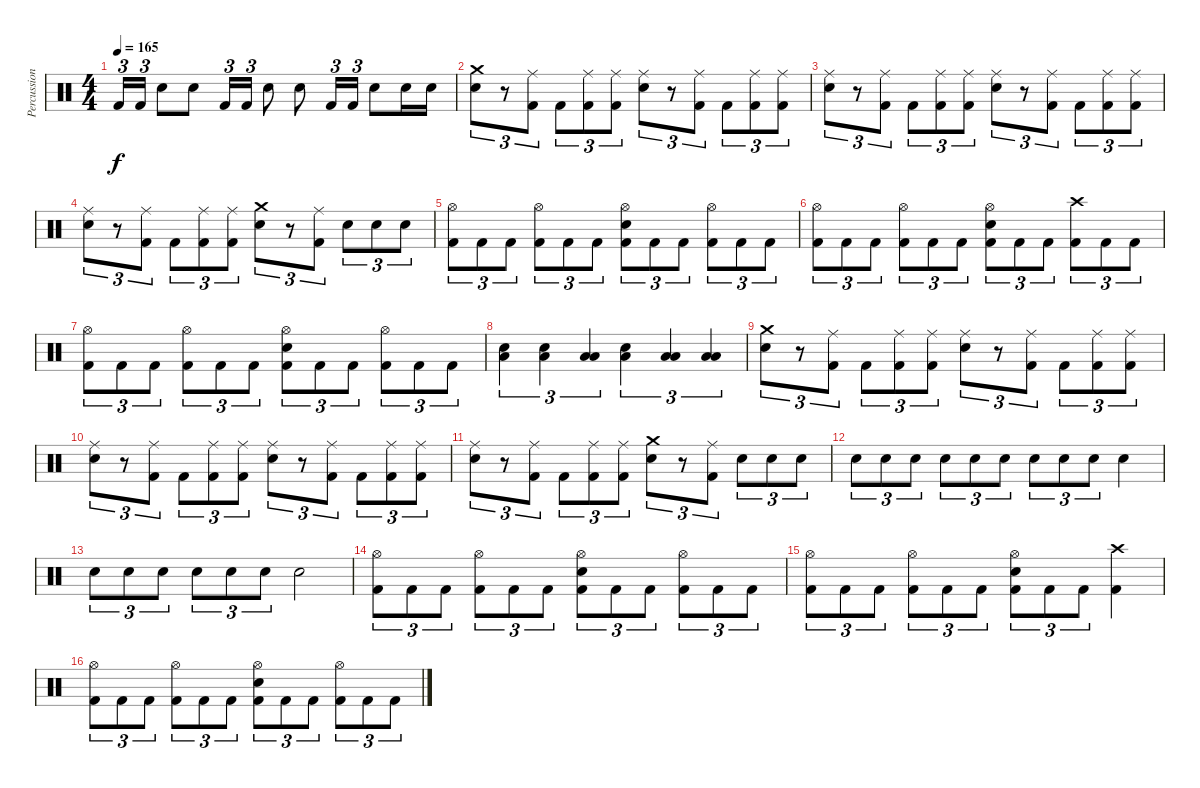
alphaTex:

\track ("Percussion" "Percussion") {instrument percussion}
\staff {score}
\articulation defaults
\ts (4 4)
\tempo 165
\clef neutral
\ks c "Kick (hit) 2".16{tu (3 2) dy f} "Kick (hit) 2".16{tu (3 2)} "Snare (hit) 2".8 "Snare (hit) 2".8 "Kick (hit) 2".16{tu (3 2)} "Kick (hit) 2".16{tu (3 2)} "Snare (hit) 2".8 "Snare (hit) 2".8 "Kick (hit) 2".16{tu (3 2)} "Kick (hit) 2".16{tu (3 2)} "Snare (hit) 2".8 "Snare (hit) 2".16 "Snare (hit) 2".16
|
("Snare (hit) 2" "Crash medium (hit)").8{tu (3 2)} r.8{tu (3 2)} ("Kick (hit) 2" "Ride (middle)").8{tu (3 2)} "Kick (hit) 2".8{tu (3 2)} ("Kick (hit) 2" "Ride (middle)").8{tu (3 2)} ("Kick (hit) 2" "Ride (middle)").8{tu (3 2)} ("Snare (hit) 2" "Ride (middle)").8{tu (3 2)} r.8{tu (3 2)} ("Kick (hit) 2" "Ride (middle)").8{tu (3 2)} "Kick (hit) 2".8{tu (3 2)} ("Kick (hit) 2" "Ride (middle)").8{tu (3 2)} ("Kick (hit) 2" "Ride (middle)").8{tu (3 2)} |
("Snare (hit) 2" "Ride (middle)").8{tu (3 2)} r.8{tu (3 2)} ("Kick (hit) 2" "Ride (middle)").8{tu (3 2)} "Kick (hit) 2".8{tu (3 2)} ("Kick (hit) 2" "Ride (middle)").8{tu (3 2)} ("Kick (hit) 2" "Ride (middle)").8{tu (3 2)} ("Snare (hit) 2" "Ride (middle)").8{tu (3 2)} r.8{tu (3 2)} ("Kick (hit) 2" "Ride (middle)").8{tu (3 2)} "Kick (hit) 2".8{tu (3 2)} ("Kick (hit) 2" "Ride (middle)").8{tu (3 2)} ("Kick (hit) 2" "Ride (middle)").8{tu (3 2)} |
("Snare (hit) 2" "Ride (middle)").8{tu (3 2)} r.8{tu (3 2)} ("Kick (hit) 2" "Ride (middle)").8{tu (3 2)} "Kick (hit) 2".8{tu (3 2)} ("Kick (hit) 2" "Ride (middle)").8{tu (3 2)} ("Kick (hit) 2" "Ride (middle)").8{tu (3 2)} ("Snare (hit) 2" "Crash medium (hit)").8{tu (3 2)} r.8{tu (3 2)} ("Kick (hit) 2" "Ride (middle)").8{tu (3 2)} "Snare (hit) 2".8{tu (3 2)} "Snare (hit) 2".8{tu (3 2)} "Snare (hit) 2".8{tu (3 2)} |
("Kick (hit) 2" "Hi-Hat (open)").8{tu (3 2)} "Kick (hit) 2".8{tu (3 2)} "Kick (hit) 2".8{tu (3 2)} ("Kick (hit) 2" "Hi-Hat (open)").8{tu (3 2)} "Kick (hit) 2".8{tu (3 2)} "Kick (hit) 2".8{tu (3 2)} ("Kick (hit) 2" "Hi-Hat (open)" "Snare (hit) 2").8{tu (3 2)} "Kick (hit) 2".8{tu (3 2)} "Kick (hit) 2".8{tu (3 2)} ("Kick (hit) 2" "Hi-Hat (open)").8{tu (3 2)} "Kick (hit) 2".8{tu (3 2)} "Kick (hit) 2".8{tu (3 2)} |
("Kick (hit) 2" "Hi-Hat (open)").8{tu (3 2)} "Kick (hit) 2".8{tu (3 2)} "Kick (hit) 2".8{tu (3 2)} ("Kick (hit) 2" "Hi-Hat (open)").8{tu (3 2)} "Kick (hit) 2".8{tu (3 2)} "Kick (hit) 2".8{tu (3 2)} ("Kick (hit) 2" "Hi-Hat (open)" "Snare (hit) 2").8{tu (3 2)} "Kick (hit) 2".8{tu (3 2)} "Kick (hit) 2".8{tu (3 2)} ("Kick (hit) 2" "Crash high (hit)").8{tu (3 2)} "Kick (hit) 2".8{tu (3 2)} "Kick (hit) 2".8{tu (3 2)} |
("Kick (hit) 2" "Hi-Hat (open)").8{tu (3 2)} "Kick (hit) 2".8{tu (3 2)} "Kick (hit) 2".8{tu (3 2)} ("Kick (hit) 2" "Hi-Hat (open)").8{tu (3 2)} "Kick (hit) 2".8{tu (3 2)} "Kick (hit) 2".8{tu (3 2)} ("Kick (hit) 2" "Hi-Hat (open)" "Snare (hit) 2").8{tu (3 2)} "Kick (hit) 2".8{tu (3 2)} "Kick (hit) 2".8{tu (3 2)} ("Kick (hit) 2" "Hi-Hat (open)").8{tu (3 2)} "Kick (hit) 2".8{tu (3 2)} "Kick (hit) 2".8{tu (3 2)} |
("Snare (hit) 2" "Low Tom (hit)").4{tu (3 2)} ("Snare (hit) 2" "Low Tom (hit)").4{tu (3 2)} ("Low Tom (hit)" "Low Floor Tom (hit)").4{tu (3 2)} ("Snare (hit) 2" "Low Tom (hit)").4{tu (3 2)} ("Low Tom (hit)" "Low Floor Tom (hit)").4{tu (3 2)} ("Low Tom (hit)" "Low Floor Tom (hit)").4{tu (3 2)} |
("Snare (hit) 2" "Crash medium (hit)").8{tu (3 2)} r.8{tu (3 2)} ("Kick (hit) 2" "Ride (middle)").8{tu (3 2)} "Kick (hit) 2".8{tu (3 2)} ("Kick (hit) 2" "Ride (middle)").8{tu (3 2)} ("Kick (hit) 2" "Ride (middle)").8{tu (3 2)} ("Snare (hit) 2" "Ride (middle)").8{tu (3 2)} r.8{tu (3 2)} ("Kick (hit) 2" "Ride (middle)").8{tu (3 2)} "Kick (hit) 2".8{tu (3 2)} ("Kick (hit) 2" "Ride (middle)").8{tu (3 2)} ("Kick (hit) 2" "Ride (middle)").8{tu (3 2)} |
("Snare (hit) 2" "Ride (middle)").8{tu (3 2)} r.8{tu (3 2)} ("Kick (hit) 2" "Ride (middle)").8{tu (3 2)} "Kick (hit) 2".8{tu (3 2)} ("Kick (hit) 2" "Ride (middle)").8{tu (3 2)} ("Kick (hit) 2" "Ride (middle)").8{tu (3 2)} ("Snare (hit) 2" "Ride (middle)").8{tu (3 2)} r.8{tu (3 2)} ("Kick (hit) 2" "Ride (middle)").8{tu (3 2)} "Kick (hit) 2".8{tu (3 2)} ("Kick (hit) 2" "Ride (middle)").8{tu (3 2)} ("Kick (hit) 2" "Ride (middle)").8{tu (3 2)} |
("Snare (hit) 2" "Ride (middle)").8{tu (3 2)} r.8{tu (3 2)} ("Kick (hit) 2" "Ride (middle)").8{tu (3 2)} "Kick (hit) 2".8{tu (3 2)} ("Kick (hit) 2" "Ride (middle)").8{tu (3 2)} ("Kick (hit) 2" "Ride (middle)").8{tu (3 2)} ("Snare (hit) 2" "Crash medium (hit)").8{tu (3 2)} r.8{tu (3 2)} ("Kick (hit) 2" "Ride (middle)").8{tu (3 2)} "Snare (hit) 2".8{tu (3 2)} "Snare (hit) 2".8{tu (3 2)} "Snare (hit) 2".8{tu (3 2)} |
"Snare (hit) 2".8{tu (3 2)} "Snare (hit) 2".8{tu (3 2)} "Snare (hit) 2".8{tu (3 2)} "Snare (hit) 2".8{tu (3 2)} "Snare (hit) 2".8{tu (3 2)} "Snare (hit) 2".8{tu (3 2)} "Snare (hit) 2".8{tu (3 2)} "Snare (hit) 2".8{tu (3 2)} "Snare (hit) 2".8{tu (3 2)} "Snare (hit) 2".4 |
"Snare (hit) 2".8{tu (3 2)} "Snare (hit) 2".8{tu (3 2)} "Snare (hit) 2".8{tu (3 2)} "Snare (hit) 2".8{tu (3 2)} "Snare (hit) 2".8{tu (3 2)} "Snare (hit) 2".8{tu (3 2)} "Snare (hit) 2".2 |
("Kick (hit) 2" "Hi-Hat (open)").8{tu (3 2)} "Kick (hit) 2".8{tu (3 2)} "Kick (hit) 2".8{tu (3 2)} ("Kick (hit) 2" "Hi-Hat (open)").8{tu (3 2)} "Kick (hit) 2".8{tu (3 2)} "Kick (hit) 2".8{tu (3 2)} ("Kick (hit) 2" "Hi-Hat (open)" "Snare (hit) 2").8{tu (3 2)} "Kick (hit) 2".8{tu (3 2)} "Kick (hit) 2".8{tu (3 2)} ("Kick (hit) 2" "Hi-Hat (open)").8{tu (3 2)} "Kick (hit) 2".8{tu (3 2)} "Kick (hit) 2".8{tu (3 2)} |
("Kick (hit) 2" "Hi-Hat (open)").8{tu (3 2)} "Kick (hit) 2".8{tu (3 2)} "Kick (hit) 2".8{tu (3 2)} ("Kick (hit) 2" "Hi-Hat (open)").8{tu (3 2)} "Kick (hit) 2".8{tu (3 2)} "Kick (hit) 2".8{tu (3 2)} ("Kick (hit) 2" "Hi-Hat (open)" "Snare (hit) 2").8{tu (3 2)} "Kick (hit) 2".8{tu (3 2)} "Kick (hit) 2".8{tu (3 2)} ("Kick (hit) 2" "Crash high (hit)").4 |
("Kick (hit) 2" "Hi-Hat (open)").8{tu (3 2)} "Kick (hit) 2".8{tu (3 2)} "Kick (hit) 2".8{tu (3 2)} ("Kick (hit) 2" "Hi-Hat (open)").8{tu (3 2)} "Kick (hit) 2".8{tu (3 2)} "Kick (hit) 2".8{tu (3 2)} ("Kick (hit) 2" "Hi-Hat (open)" "Snare (hit) 2").8{tu (3 2)} "Kick (hit) 2".8{tu (3 2)} "Kick (hit) 2".8{tu (3 2)} ("Kick (hit) 2" "Hi-Hat (open)").8{tu (3 2)} "Kick (hit) 2".8{tu (3 2)} "Kick (hit) 2".8{tu (3 2)}
